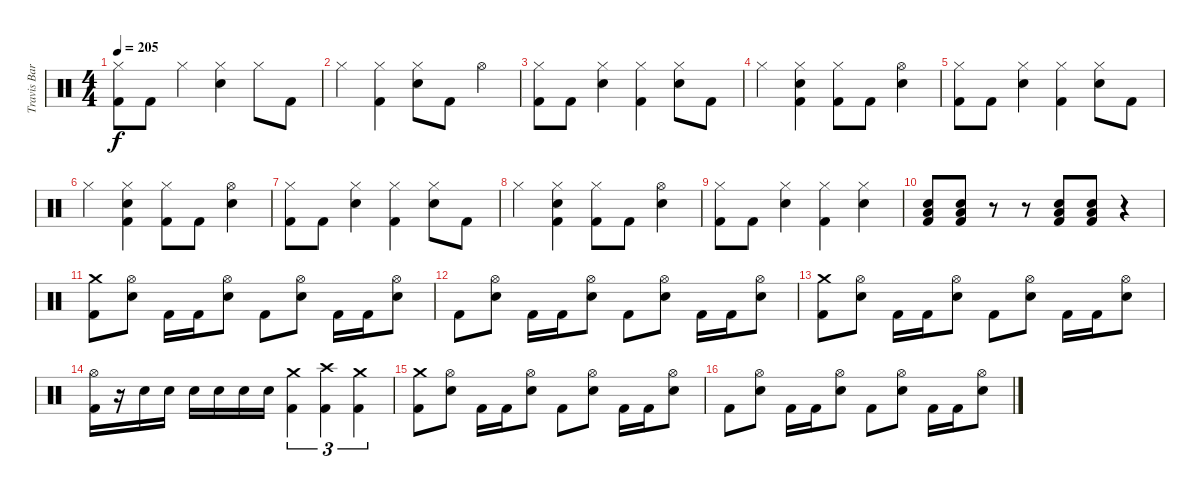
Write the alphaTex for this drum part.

\track ("Travis Barker (Drums)" "Travis Bar") {instrument percussion}
\staff {score}
\articulation defaults
\ts (4 4)
\tempo 205
\clef neutral
\ks c
("Hi-Hat (closed)" "Kick (hit) 2").8{dy f} "Kick (hit) 2".8 "Hi-Hat (closed)".4 ("Hi-Hat (closed)" "Electric Snare (hit)").4 "Hi-Hat (closed)".8 "Kick (hit) 2".8 |
"Hi-Hat (closed)".4 ("Hi-Hat (closed)" "Kick (hit) 2").4 ("Hi-Hat (closed)" "Electric Snare (hit)").8 "Kick (hit) 2".8 "Hi-Hat (open)".4 |
("Hi-Hat (closed)" "Kick (hit) 2").8 "Kick (hit) 2".8 ("Hi-Hat (closed)" "Electric Snare (hit)").4 ("Hi-Hat (closed)" "Kick (hit) 2").4 ("Hi-Hat (closed)" "Electric Snare (hit)").8 "Kick (hit) 2".8 |
"Hi-Hat (closed)".4 ("Hi-Hat (closed)" "Electric Snare (hit)" "Kick (hit) 2").4 ("Hi-Hat (closed)" "Kick (hit) 2").8 "Kick (hit) 2".8 ("Hi-Hat (open)" "Electric Snare (hit)").4 |
("Hi-Hat (closed)" "Kick (hit) 2").8 "Kick (hit) 2".8 ("Hi-Hat (closed)" "Electric Snare (hit)").4 ("Hi-Hat (closed)" "Kick (hit) 2").4 ("Hi-Hat (closed)" "Electric Snare (hit)").8 "Kick (hit) 2".8 |
"Hi-Hat (closed)".4 ("Hi-Hat (closed)" "Electric Snare (hit)" "Kick (hit) 2").4 ("Hi-Hat (closed)" "Kick (hit) 2").8 "Kick (hit) 2".8 ("Hi-Hat (open)" "Electric Snare (hit)").4 |
("Hi-Hat (closed)" "Kick (hit) 2").8 "Kick (hit) 2".8 ("Hi-Hat (closed)" "Electric Snare (hit)").4 ("Hi-Hat (closed)" "Kick (hit) 2").4 ("Hi-Hat (closed)" "Electric Snare (hit)").8 "Kick (hit) 2".8 |
"Hi-Hat (closed)".4 ("Hi-Hat (closed)" "Electric Snare (hit)" "Kick (hit) 2").4 ("Hi-Hat (closed)" "Kick (hit) 2").8 "Kick (hit) 2".8 ("Hi-Hat (open)" "Electric Snare (hit)").4 |
("Hi-Hat (closed)" "Kick (hit) 2").8 "Kick (hit) 2".8 ("Hi-Hat (closed)" "Electric Snare (hit)").4 ("Hi-Hat (closed)" "Kick (hit) 2").4 ("Hi-Hat (closed)" "Electric Snare (hit)").4 |
("Low Floor Tom (hit)" "Electric Snare (hit)" "Kick (hit) 2").8 ("Low Floor Tom (hit)" "Electric Snare (hit)" "Kick (hit) 2").8 r.8 r.8 ("Low Floor Tom (hit)" "Electric Snare (hit)" "Kick (hit) 2").8 ("Low Floor Tom (hit)" "Electric Snare (hit)" "Kick (hit) 2").8 r.4 |
("Crash medium (hit)" "Kick (hit) 2").8 ("Hi-Hat (open)" "Electric Snare (hit)").8 "Kick (hit) 2".16 "Kick (hit) 2".16 ("Hi-Hat (open)" "Electric Snare (hit)").8 "Kick (hit) 2".8 ("Hi-Hat (open)" "Electric Snare (hit)").8 "Kick (hit) 2".16 "Kick (hit) 2".16 ("Hi-Hat (open)" "Electric Snare (hit)").8 |
"Kick (hit) 2".8 ("Hi-Hat (open)" "Electric Snare (hit)").8 "Kick (hit) 2".16 "Kick (hit) 2".16 ("Hi-Hat (open)" "Electric Snare (hit)").8 "Kick (hit) 2".8 ("Hi-Hat (open)" "Electric Snare (hit)").8 "Kick (hit) 2".16 "Kick (hit) 2".16 ("Hi-Hat (open)" "Electric Snare (hit)").8 |
("Crash medium (hit)" "Kick (hit) 2").8 ("Hi-Hat (open)" "Electric Snare (hit)").8 "Kick (hit) 2".16 "Kick (hit) 2".16 ("Hi-Hat (open)" "Electric Snare (hit)").8 "Kick (hit) 2".8 ("Hi-Hat (open)" "Electric Snare (hit)").8 "Kick (hit) 2".16 "Kick (hit) 2".16 ("Hi-Hat (open)" "Electric Snare (hit)").8 |
("Hi-Hat (open)" "Kick (hit) 2").16 r.16 "Electric Snare (hit)".16 "Electric Snare (hit)".16 "Electric Snare (hit)".16 "Electric Snare (hit)".16 "Electric Snare (hit)".16 "Electric Snare (hit)".16 ("Crash medium (hit)" "Kick (hit) 2").4{tu (3 2)} ("Crash high (hit)" "Kick (hit) 2").4{tu (3 2)} ("Crash medium (hit)" "Kick (hit) 2").4{tu (3 2)} |
("Crash medium (hit)" "Kick (hit) 2").8 ("Hi-Hat (open)" "Electric Snare (hit)").8 "Kick (hit) 2".16 "Kick (hit) 2".16 ("Hi-Hat (open)" "Electric Snare (hit)").8 "Kick (hit) 2".8 ("Hi-Hat (open)" "Electric Snare (hit)").8 "Kick (hit) 2".16 "Kick (hit) 2".16 ("Hi-Hat (open)" "Electric Snare (hit)").8 |
"Kick (hit) 2".8 ("Hi-Hat (open)" "Electric Snare (hit)").8 "Kick (hit) 2".16 "Kick (hit) 2".16 ("Hi-Hat (open)" "Electric Snare (hit)").8 "Kick (hit) 2".8 ("Hi-Hat (open)" "Electric Snare (hit)").8 "Kick (hit) 2".16 "Kick (hit) 2".16 ("Hi-Hat (open)" "Electric Snare (hit)").8
